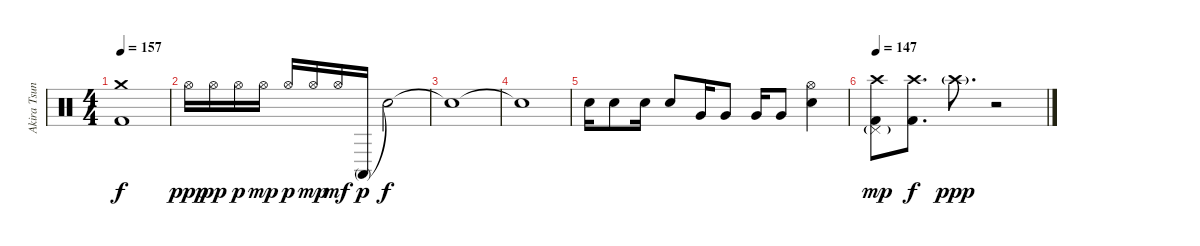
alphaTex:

\track ("Akira Tsuneoka" "Akira Tsun") {instrument percussion}
\staff {score}
\articulation defaults
\ts (4 4)
\tempo 157
\clef neutral
\ks c
("Crash medium (hit)" "Kick (hit) 2").1{dy f} |
"Hi-Hat (open)".16{dy ppp} "Hi-Hat (open)".16{dy pp} "Hi-Hat (open)".16{dy p} "Hi-Hat (open)".16{dy mp} "Hi-Hat (open)".16{dy p} "Hi-Hat (open)".16{dy mp} "Hi-Hat (open)".16{dy mf} "Conga high (mute)".16{dy p} "Snare (hit)"{t}.2{dy f} |
"Snare (hit)"{t}.1 |
"Snare (hit)"{t}.1 |
"Electric Snare (hit)".16 "Electric Snare (hit)".8 "Electric Snare (hit)".16 "Electric Snare (hit)".8 "Very Low Tom (hit)".16 "Very Low Tom (hit)".8 "Very Low Tom (hit)".16 "Very Low Tom (hit)".8 ("Hi-Hat (open)" "Electric Snare (hit)").4 |
\tempo 147
("Pedal Hi-Hat (hit)"{g} "Crash high (hit)" "Kick (hit) 2").8{dy mp} ("Crash high (hit)" "Kick (hit) 2").8{d dy f} "Crash high (hit)"{g}.8{d dy ppp} r.2
